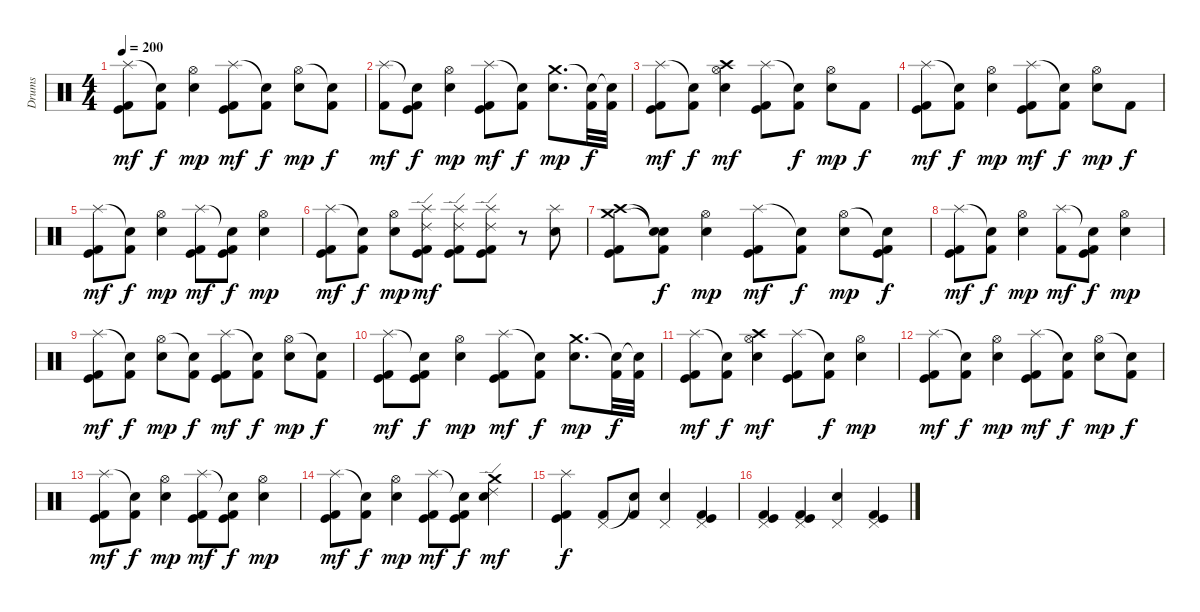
\track ("Drums" "Drums") {instrument percussion}
\staff {score}
\articulation defaults
\ts (4 4)
\tempo 200
\clef neutral
\ks c
("Splash (hit)" "Kick (hit)" "Kick (hit) 2").8{dy mf} ("Snare (hit)"{t} "Kick (hit) 2").8{dy f} ("Hi-Hat (open)" "Snare (hit) 2").4{dy mp} ("Splash (hit)" "Kick (hit)" "Kick (hit) 2").8{dy mf} ("Snare (hit)"{t} "Kick (hit) 2").8{dy f} ("Hi-Hat (open)" "Snare (hit) 2").8{dy mp} ("Snare (hit)"{t} "Kick (hit) 2").8{dy f} |
("Splash (hit)" "Kick (hit) 2").8{dy mf} ("Snare (hit)"{t} "Kick (hit)" "Kick (hit) 2").8{dy f} ("Hi-Hat (open)" "Snare (hit) 2").4{dy mp} ("Splash (hit)" "Kick (hit)" "Kick (hit) 2").8{dy mf} ("Snare (hit)"{t} "Kick (hit) 2").8{dy f} ("Crash medium (hit)" "Snare (hit) 2").8{d dy mp} ("Snare (hit)"{t} "Kick (hit) 2").32{dy f} ("Snare (hit)"{t} "Kick (hit) 2").32 |
("Splash (hit)" "Kick (hit)" "Kick (hit) 2").8{dy mf} ("Snare (hit)"{t} "Kick (hit) 2").8{dy f} ("Crash high (hit)" "Hi-Hat (open)" "Snare (hit) 2").4{dy mf} ("Splash (hit)" "Kick (hit)" "Kick (hit) 2").8 ("Snare (hit)"{t} "Kick (hit) 2").8{dy f} ("Hi-Hat (open)" "Snare (hit) 2").8{dy mp} "Kick (hit) 2".8{dy f} |
("Splash (hit)" "Kick (hit)" "Kick (hit) 2").8{dy mf} ("Snare (hit)"{t} "Kick (hit) 2").8{dy f} ("Hi-Hat (open)" "Snare (hit) 2").4{dy mp} ("Splash (hit)" "Kick (hit)" "Kick (hit) 2").8{dy mf} ("Snare (hit)"{t} "Kick (hit) 2").8{dy f} ("Hi-Hat (open)" "Snare (hit) 2").8{dy mp} "Kick (hit) 2".8{dy f} |
("Splash (hit)" "Kick (hit)" "Kick (hit) 2").8{dy mf} ("Snare (hit)"{t} "Kick (hit) 2").8{dy f} ("Hi-Hat (open)" "Snare (hit) 2").4{dy mp} ("Splash (hit)" "Kick (hit)" "Kick (hit) 2").8{dy mf} ("Snare (hit)"{t} "Kick (hit)" "Kick (hit) 2").8{dy f} ("Hi-Hat (open)" "Snare (hit) 2").4{dy mp} |
("Splash (hit)" "Kick (hit)" "Kick (hit) 2").8{dy mf} ("Snare (hit)"{t} "Kick (hit) 2").8{dy f} ("Hi-Hat (open)" "Snare (hit) 2").8{dy mp} ("Splash (hit)" "Ride (edge) 2" "Kick (hit)" "Kick (hit) 2").8{dy mf} ("Splash (hit)" "Ride (edge) 2" "Kick (hit)" "Kick (hit) 2").8 ("Splash (hit)" "Ride (edge) 2" "Kick (hit)" "Kick (hit) 2").8 r.8 ("Splash (hit)" "Snare (hit) 2").8 |
("Crash high (hit)" "Crash medium (hit)" "Kick (hit)" "Kick (hit) 2").8 ("Snare (hit)"{t} "Snare (hit)"{t} "Kick (hit) 2").8{dy f} ("Hi-Hat (open)" "Snare (hit) 2").4{dy mp} ("Splash (hit)" "Kick (hit)" "Kick (hit) 2").8{dy mf} ("Snare (hit)"{t} "Kick (hit) 2").8{dy f} ("Hi-Hat (open)" "Snare (hit) 2").8{dy mp} ("Snare (hit)"{t} "Kick (hit) 2" "Kick (hit)").8{dy f} |
("Splash (hit)" "Kick (hit)" "Kick (hit) 2").8{dy mf} ("Snare (hit)"{t} "Kick (hit) 2").8{dy f} ("Hi-Hat (open)" "Snare (hit) 2").4{dy mp} ("Splash (hit)" "Kick (hit) 2").8{dy mf} ("Snare (hit)"{t} "Kick (hit)" "Kick (hit) 2").8{dy f} ("Hi-Hat (open)" "Snare (hit) 2").4{dy mp} |
("Splash (hit)" "Kick (hit)" "Kick (hit) 2").8{dy mf} ("Snare (hit)"{t} "Kick (hit) 2").8{dy f} ("Hi-Hat (open)" "Snare (hit) 2").8{dy mp} ("Snare (hit)"{t} "Kick (hit) 2").8{dy f} ("Splash (hit)" "Kick (hit)" "Kick (hit) 2").8{dy mf} ("Snare (hit)"{t} "Kick (hit) 2").8{dy f} ("Hi-Hat (open)" "Snare (hit) 2").8{dy mp} ("Snare (hit)"{t} "Kick (hit) 2").8{dy f} |
("Splash (hit)" "Kick (hit)" "Kick (hit) 2").8{dy mf} ("Snare (hit)"{t} "Kick (hit)" "Kick (hit) 2").8{dy f} ("Hi-Hat (open)" "Snare (hit) 2").4{dy mp} ("Splash (hit)" "Kick (hit)" "Kick (hit) 2").8{dy mf} ("Snare (hit)"{t} "Kick (hit) 2").8{dy f} ("Crash medium (hit)" "Snare (hit) 2").8{d dy mp} ("Snare (hit)"{t} "Kick (hit) 2").32{dy f} ("Snare (hit)"{t} "Kick (hit) 2").32 |
("Splash (hit)" "Kick (hit)" "Kick (hit) 2").8{dy mf} ("Snare (hit)"{t} "Kick (hit) 2").8{dy f} ("Crash high (hit)" "Hi-Hat (open)" "Snare (hit) 2").4{dy mf} ("Splash (hit)" "Kick (hit)" "Kick (hit) 2").8 ("Snare (hit)"{t} "Kick (hit) 2").8{dy f} ("Hi-Hat (open)" "Snare (hit) 2").4{dy mp} |
("Splash (hit)" "Kick (hit)" "Kick (hit) 2").8{dy mf} ("Snare (hit)"{t} "Kick (hit) 2").8{dy f} ("Hi-Hat (open)" "Snare (hit) 2").4{dy mp} ("Splash (hit)" "Kick (hit)" "Kick (hit) 2").8{dy mf} ("Snare (hit)"{t} "Kick (hit) 2").8{dy f} ("Hi-Hat (open)" "Snare (hit) 2").8{dy mp} ("Snare (hit)"{t} "Kick (hit) 2").8{dy f} |
("Splash (hit)" "Kick (hit)" "Kick (hit) 2").8{dy mf} ("Snare (hit)"{t} "Kick (hit) 2").8{dy f} ("Hi-Hat (open)" "Snare (hit) 2").4{dy mp} ("Splash (hit)" "Kick (hit)" "Kick (hit) 2").8{dy mf} ("Snare (hit)"{t} "Kick (hit)" "Kick (hit) 2").8{dy f} ("Hi-Hat (open)" "Snare (hit) 2").4{dy mp} |
("Splash (hit)" "Kick (hit)" "Kick (hit) 2").8{dy mf} ("Snare (hit)"{t} "Kick (hit) 2").8{dy f} ("Hi-Hat (open)" "Snare (hit) 2").4{dy mp} ("Splash (hit)" "Kick (hit)" "Kick (hit) 2").8{dy mf} ("Snare (hit)"{t} "Kick (hit)" "Kick (hit) 2").8{dy f} ("Ride (edge) 2" "Crash medium (hit)" "Snare (hit) 2").4{dy mf} |
("Splash (hit)" "Kick (hit)" "Kick (hit) 2").4{dy f} ("Pedal Hi-Hat (hit)" "Kick (hit) 2").8 ("Snare (hit)"{t} "Kick (hit) 2").8 ("Pedal Hi-Hat (hit)" "Snare (hit) 2").4 ("Pedal Hi-Hat (hit)" "Kick (hit)" "Kick (hit) 2").4 |
("Pedal Hi-Hat (hit)" "Kick (hit)" "Kick (hit) 2").4 ("Pedal Hi-Hat (hit)" "Kick (hit)" "Kick (hit) 2").4 ("Pedal Hi-Hat (hit)" "Snare (hit) 2").4 ("Pedal Hi-Hat (hit)" "Kick (hit)" "Kick (hit) 2").4
